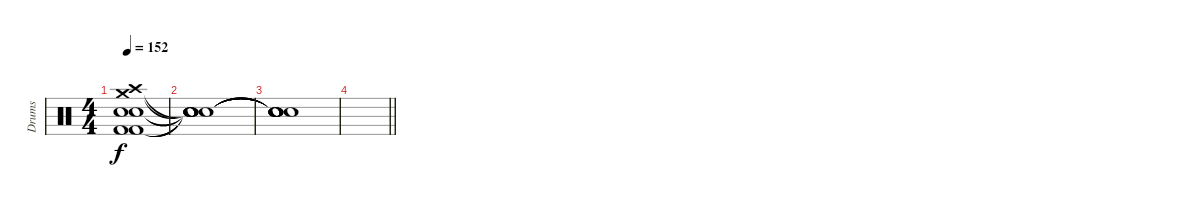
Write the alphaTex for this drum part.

\track ("Drums" "Drums") {instrument percussion}
\staff {score}
\articulation defaults
\ts (4 4)
\tempo 152
\clef neutral
\ks c
("Kick (hit) 2" "Crash medium (hit)" "Crash high (hit)" "Snare (hit) 2" "Snare (hit) 2" "Kick (hit) 2").1{dy f} |
("Snare (hit)"{t} "Snare (hit)"{t} "Snare (hit)"{t} "Snare (hit)"{t} "Snare (hit)"{t} "Snare (hit)"{t}).1 |
("Snare (hit)"{t} "Snare (hit)"{t} "Snare (hit)"{t} "Snare (hit)"{t} "Snare (hit)"{t} "Snare (hit)"{t}).1 |
\barLineRight lightlight
